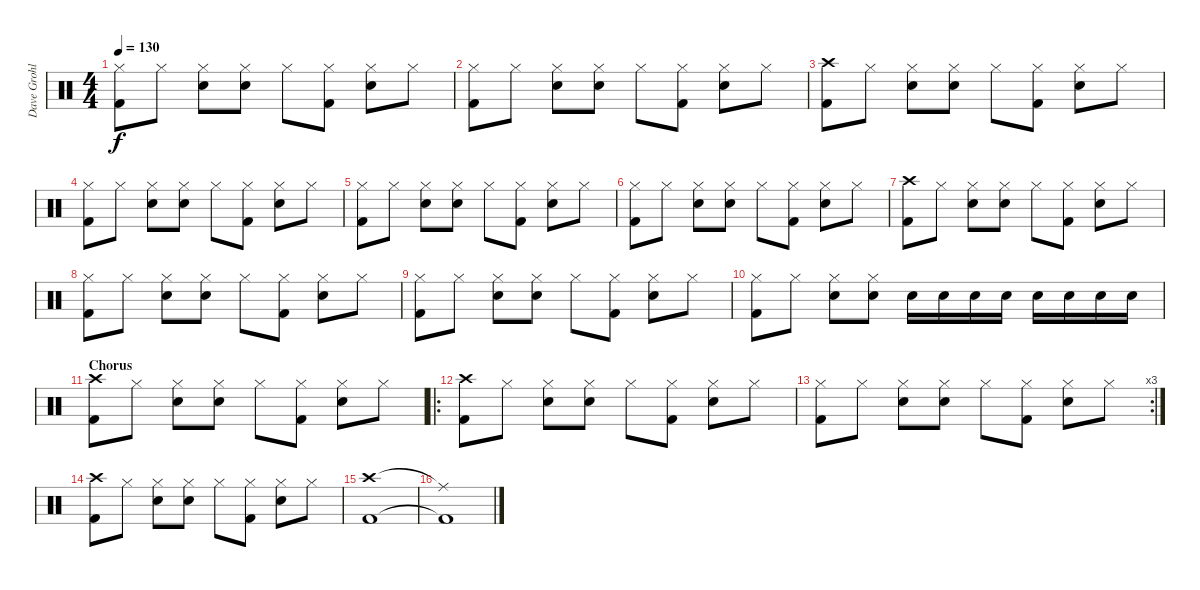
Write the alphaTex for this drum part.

\track ("Dave Grohl" "Dave Grohl") {instrument percussion}
\staff {score}
\articulation defaults
\ts (4 4)
\tempo 130
\clef neutral
\ks c
("Hi-Hat (closed)" "Kick (hit) 2").8{dy f} "Hi-Hat (closed)".8 ("Hi-Hat (closed)" "Electric Snare (hit)").8 ("Hi-Hat (closed)" "Electric Snare (hit)").8 "Hi-Hat (closed)".8 ("Hi-Hat (closed)" "Kick (hit) 2").8 ("Hi-Hat (closed)" "Electric Snare (hit)").8 "Hi-Hat (closed)".8 |
("Hi-Hat (closed)" "Kick (hit) 2").8 "Hi-Hat (closed)".8 ("Hi-Hat (closed)" "Electric Snare (hit)").8 ("Hi-Hat (closed)" "Electric Snare (hit)").8 "Hi-Hat (closed)".8 ("Hi-Hat (closed)" "Kick (hit) 2").8 ("Hi-Hat (closed)" "Electric Snare (hit)").8 "Hi-Hat (closed)".8 |
("Crash high (hit)" "Kick (hit) 2").8 "Hi-Hat (closed)".8 ("Hi-Hat (closed)" "Electric Snare (hit)").8 ("Hi-Hat (closed)" "Electric Snare (hit)").8 "Hi-Hat (closed)".8 ("Hi-Hat (closed)" "Kick (hit) 2").8 ("Hi-Hat (closed)" "Electric Snare (hit)").8 "Hi-Hat (closed)".8 |
("Hi-Hat (closed)" "Kick (hit) 2").8 "Hi-Hat (closed)".8 ("Hi-Hat (closed)" "Electric Snare (hit)").8 ("Hi-Hat (closed)" "Electric Snare (hit)").8 "Hi-Hat (closed)".8 ("Hi-Hat (closed)" "Kick (hit) 2").8 ("Hi-Hat (closed)" "Electric Snare (hit)").8 "Hi-Hat (closed)".8 |
("Hi-Hat (closed)" "Kick (hit) 2").8 "Hi-Hat (closed)".8 ("Hi-Hat (closed)" "Electric Snare (hit)").8 ("Hi-Hat (closed)" "Electric Snare (hit)").8 "Hi-Hat (closed)".8 ("Hi-Hat (closed)" "Kick (hit) 2").8 ("Hi-Hat (closed)" "Electric Snare (hit)").8 "Hi-Hat (closed)".8 |
("Hi-Hat (closed)" "Kick (hit) 2").8 "Hi-Hat (closed)".8 ("Hi-Hat (closed)" "Electric Snare (hit)").8 ("Hi-Hat (closed)" "Electric Snare (hit)").8 "Hi-Hat (closed)".8 ("Hi-Hat (closed)" "Kick (hit) 2").8 ("Hi-Hat (closed)" "Electric Snare (hit)").8 "Hi-Hat (closed)".8 |
("Crash high (hit)" "Kick (hit) 2").8 "Hi-Hat (closed)".8 ("Hi-Hat (closed)" "Electric Snare (hit)").8 ("Hi-Hat (closed)" "Electric Snare (hit)").8 "Hi-Hat (closed)".8 ("Hi-Hat (closed)" "Kick (hit) 2").8 ("Hi-Hat (closed)" "Electric Snare (hit)").8 "Hi-Hat (closed)".8 |
("Hi-Hat (closed)" "Kick (hit) 2").8 "Hi-Hat (closed)".8 ("Hi-Hat (closed)" "Electric Snare (hit)").8 ("Hi-Hat (closed)" "Electric Snare (hit)").8 "Hi-Hat (closed)".8 ("Hi-Hat (closed)" "Kick (hit) 2").8 ("Hi-Hat (closed)" "Electric Snare (hit)").8 "Hi-Hat (closed)".8 |
("Hi-Hat (closed)" "Kick (hit) 2").8 "Hi-Hat (closed)".8 ("Hi-Hat (closed)" "Electric Snare (hit)").8 ("Hi-Hat (closed)" "Electric Snare (hit)").8 "Hi-Hat (closed)".8 ("Hi-Hat (closed)" "Kick (hit) 2").8 ("Hi-Hat (closed)" "Electric Snare (hit)").8 "Hi-Hat (closed)".8 |
("Hi-Hat (closed)" "Kick (hit) 2").8 "Hi-Hat (closed)".8 ("Hi-Hat (closed)" "Electric Snare (hit)").8 ("Hi-Hat (closed)" "Electric Snare (hit)").8 "Electric Snare (hit)".16 "Electric Snare (hit)".16 "Electric Snare (hit)".16 "Electric Snare (hit)".16 "Electric Snare (hit)".16 "Electric Snare (hit)".16 "Electric Snare (hit)".16 "Electric Snare (hit)".16 |
\section ("" "Chorus")
("Crash high (hit)" "Kick (hit) 2").8 "Hi-Hat (closed)".8 ("Hi-Hat (closed)" "Electric Snare (hit)").8 ("Hi-Hat (closed)" "Electric Snare (hit)").8 "Hi-Hat (closed)".8 ("Hi-Hat (closed)" "Kick (hit) 2").8 ("Hi-Hat (closed)" "Electric Snare (hit)").8 "Hi-Hat (closed)".8 |
\ro
("Crash high (hit)" "Kick (hit) 2").8 "Hi-Hat (closed)".8 ("Hi-Hat (closed)" "Electric Snare (hit)").8 ("Hi-Hat (closed)" "Electric Snare (hit)").8 "Hi-Hat (closed)".8 ("Hi-Hat (closed)" "Kick (hit) 2").8 ("Hi-Hat (closed)" "Electric Snare (hit)").8 "Hi-Hat (closed)".8 |
\rc 3
("Hi-Hat (closed)" "Kick (hit) 2").8 "Hi-Hat (closed)".8 ("Hi-Hat (closed)" "Electric Snare (hit)").8 ("Hi-Hat (closed)" "Electric Snare (hit)").8 "Hi-Hat (closed)".8 ("Hi-Hat (closed)" "Kick (hit) 2").8 ("Hi-Hat (closed)" "Electric Snare (hit)").8 "Hi-Hat (closed)".8 |
("Crash high (hit)" "Kick (hit) 2").8 "Hi-Hat (closed)".8 ("Hi-Hat (closed)" "Electric Snare (hit)").8 ("Hi-Hat (closed)" "Electric Snare (hit)").8 "Hi-Hat (closed)".8 ("Hi-Hat (closed)" "Kick (hit) 2").8 ("Hi-Hat (closed)" "Electric Snare (hit)").8 "Hi-Hat (closed)".8 |
("Crash high (hit)" "Kick (hit) 2").1 |
("Ride (middle)"{t} "Kick (hit) 2"{t}).1
